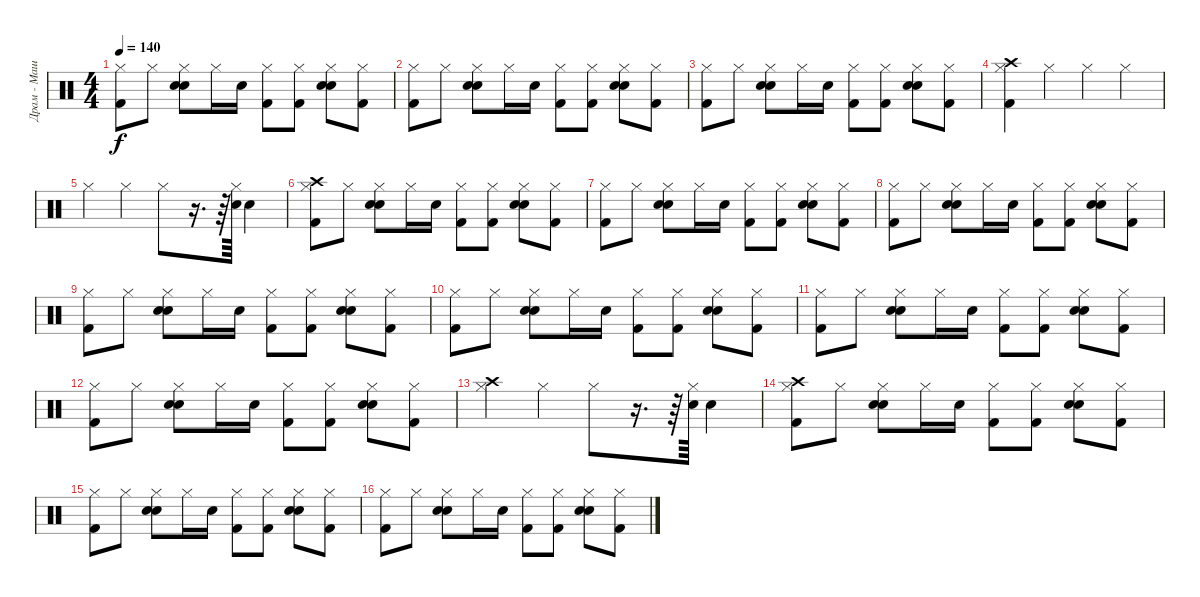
\track ("Драм - Машина" "Драм - Маш") {instrument percussion}
\staff {score}
\articulation defaults
\ts (4 4)
\tempo 140
\clef neutral
\ks c
("Kick (hit) 2" "Hi-Hat (closed)").8{dy f} "Hi-Hat (closed)".8 ("Hand Clap (hit)" "Snare (hit) 2" "Hi-Hat (closed)").8 "Hi-Hat (closed)".16 "Snare (hit) 2".16 ("Kick (hit) 2" "Hi-Hat (closed)").8 ("Hi-Hat (closed)" "Kick (hit) 2").8 ("Hand Clap (hit)" "Snare (hit) 2" "Hi-Hat (closed)").8 ("Hi-Hat (closed)" "Kick (hit) 2").8 |
("Kick (hit) 2" "Hi-Hat (closed)").8 "Hi-Hat (closed)".8 ("Hand Clap (hit)" "Snare (hit) 2" "Hi-Hat (closed)").8 "Hi-Hat (closed)".16 "Snare (hit) 2".16 ("Kick (hit) 2" "Hi-Hat (closed)").8 ("Hi-Hat (closed)" "Kick (hit) 2").8 ("Hand Clap (hit)" "Snare (hit) 2" "Hi-Hat (closed)").8 ("Hi-Hat (closed)" "Kick (hit) 2").8 |
("Kick (hit) 2" "Hi-Hat (closed)").8 "Hi-Hat (closed)".8 ("Hand Clap (hit)" "Snare (hit) 2" "Hi-Hat (closed)").8 "Hi-Hat (closed)".16 "Snare (hit) 2".16 ("Kick (hit) 2" "Hi-Hat (closed)").8 ("Hi-Hat (closed)" "Kick (hit) 2").8 ("Hand Clap (hit)" "Snare (hit) 2" "Hi-Hat (closed)").8 ("Hi-Hat (closed)" "Kick (hit) 2").8 |
("Crash high (hit)" "Kick (hit) 2" "Hi-Hat (closed)").4 "Hi-Hat (closed)".4 "Hi-Hat (closed)".4 "Hi-Hat (closed)".4 |
"Hi-Hat (closed)".4 "Hi-Hat (closed)".4 "Hi-Hat (closed)".8 r.16{d} r.64 ("Snare (hit) 2" "Hi-Hat (closed)").64 "Electric Snare (hit)".4 |
("Kick (hit) 2" "Crash high (hit)" "Hi-Hat (closed)").8 "Hi-Hat (closed)".8 ("Hand Clap (hit)" "Snare (hit) 2" "Hi-Hat (closed)").8 "Hi-Hat (closed)".16 "Snare (hit) 2".16 ("Kick (hit) 2" "Hi-Hat (closed)").8 ("Hi-Hat (closed)" "Kick (hit) 2").8 ("Hand Clap (hit)" "Snare (hit) 2" "Hi-Hat (closed)").8 ("Hi-Hat (closed)" "Kick (hit) 2").8 |
("Kick (hit) 2" "Hi-Hat (closed)").8 "Hi-Hat (closed)".8 ("Hand Clap (hit)" "Snare (hit) 2" "Hi-Hat (closed)").8 "Hi-Hat (closed)".16 "Snare (hit) 2".16 ("Kick (hit) 2" "Hi-Hat (closed)").8 ("Hi-Hat (closed)" "Kick (hit) 2").8 ("Hand Clap (hit)" "Snare (hit) 2" "Hi-Hat (closed)").8 ("Hi-Hat (closed)" "Kick (hit) 2").8 |
("Kick (hit) 2" "Hi-Hat (closed)").8 "Hi-Hat (closed)".8 ("Hand Clap (hit)" "Snare (hit) 2" "Hi-Hat (closed)").8 "Hi-Hat (closed)".16 "Snare (hit) 2".16 ("Kick (hit) 2" "Hi-Hat (closed)").8 ("Hi-Hat (closed)" "Kick (hit) 2").8 ("Hand Clap (hit)" "Snare (hit) 2" "Hi-Hat (closed)").8 ("Hi-Hat (closed)" "Kick (hit) 2").8 |
("Kick (hit) 2" "Hi-Hat (closed)").8 "Hi-Hat (closed)".8 ("Hand Clap (hit)" "Snare (hit) 2" "Hi-Hat (closed)").8 "Hi-Hat (closed)".16 "Snare (hit) 2".16 ("Kick (hit) 2" "Hi-Hat (closed)").8 ("Hi-Hat (closed)" "Kick (hit) 2").8 ("Hand Clap (hit)" "Snare (hit) 2" "Hi-Hat (closed)").8 ("Hi-Hat (closed)" "Kick (hit) 2").8 |
("Kick (hit) 2" "Hi-Hat (closed)").8 "Hi-Hat (closed)".8 ("Hand Clap (hit)" "Snare (hit) 2" "Hi-Hat (closed)").8 "Hi-Hat (closed)".16 "Snare (hit) 2".16 ("Kick (hit) 2" "Hi-Hat (closed)").8 ("Hi-Hat (closed)" "Kick (hit) 2").8 ("Hand Clap (hit)" "Snare (hit) 2" "Hi-Hat (closed)").8 ("Hi-Hat (closed)" "Kick (hit) 2").8 |
("Kick (hit) 2" "Hi-Hat (closed)").8 "Hi-Hat (closed)".8 ("Hand Clap (hit)" "Snare (hit) 2" "Hi-Hat (closed)").8 "Hi-Hat (closed)".16 "Snare (hit) 2".16 ("Kick (hit) 2" "Hi-Hat (closed)").8 ("Hi-Hat (closed)" "Kick (hit) 2").8 ("Hand Clap (hit)" "Snare (hit) 2" "Hi-Hat (closed)").8 ("Hi-Hat (closed)" "Kick (hit) 2").8 |
("Kick (hit) 2" "Hi-Hat (closed)").8 "Hi-Hat (closed)".8 ("Hand Clap (hit)" "Snare (hit) 2" "Hi-Hat (closed)").8 "Hi-Hat (closed)".16 "Snare (hit) 2".16 ("Kick (hit) 2" "Hi-Hat (closed)").8 ("Hi-Hat (closed)" "Kick (hit) 2").8 ("Hand Clap (hit)" "Snare (hit) 2" "Hi-Hat (closed)").8 ("Hi-Hat (closed)" "Kick (hit) 2").8 |
("Crash high (hit)" "Hi-Hat (closed)").4 "Hi-Hat (closed)".4 "Hi-Hat (closed)".8 r.16{d} r.64 ("Snare (hit) 2" "Hi-Hat (closed)").64 "Electric Snare (hit)".4 |
("Kick (hit) 2" "Hi-Hat (closed)" "Crash high (hit)").8 "Hi-Hat (closed)".8 ("Hand Clap (hit)" "Snare (hit) 2" "Hi-Hat (closed)").8 "Hi-Hat (closed)".16 "Snare (hit) 2".16 ("Kick (hit) 2" "Hi-Hat (closed)").8 ("Hi-Hat (closed)" "Kick (hit) 2").8 ("Hand Clap (hit)" "Snare (hit) 2" "Hi-Hat (closed)").8 ("Hi-Hat (closed)" "Kick (hit) 2").8 |
("Kick (hit) 2" "Hi-Hat (closed)").8 "Hi-Hat (closed)".8 ("Hand Clap (hit)" "Snare (hit) 2" "Hi-Hat (closed)").8 "Hi-Hat (closed)".16 "Snare (hit) 2".16 ("Kick (hit) 2" "Hi-Hat (closed)").8 ("Hi-Hat (closed)" "Kick (hit) 2").8 ("Hand Clap (hit)" "Snare (hit) 2" "Hi-Hat (closed)").8 ("Hi-Hat (closed)" "Kick (hit) 2").8 |
("Kick (hit) 2" "Hi-Hat (closed)").8 "Hi-Hat (closed)".8 ("Hand Clap (hit)" "Snare (hit) 2" "Hi-Hat (closed)").8 "Hi-Hat (closed)".16 "Snare (hit) 2".16 ("Kick (hit) 2" "Hi-Hat (closed)").8 ("Hi-Hat (closed)" "Kick (hit) 2").8 ("Hand Clap (hit)" "Snare (hit) 2" "Hi-Hat (closed)").8 ("Hi-Hat (closed)" "Kick (hit) 2").8
